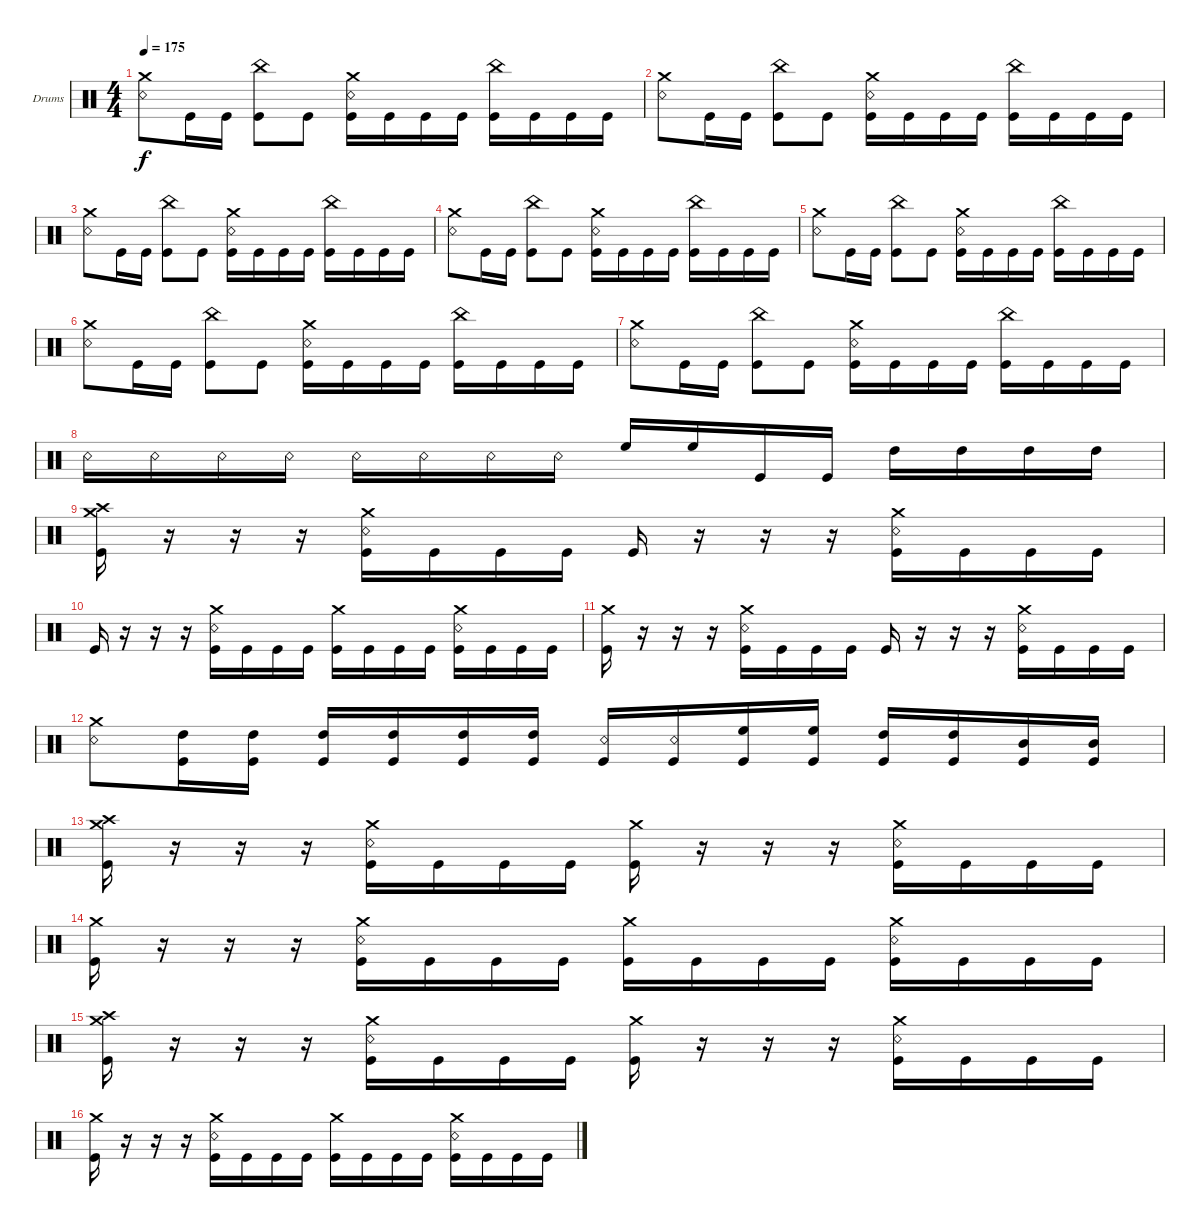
\bracketExtendMode groupsimilarinstruments
\firstSystemTrackNameOrientation horizontal
\otherSystemsTrackNameOrientation horizontal
\track ("Drumkit" "Drums") {instrument percussion}
\staff {score}
\articulation defaults
\ts (4 4)
\tempo 175
\clef neutral
\ks c
("Crash medium (hit)" "Snare (rim shot)").8{dy f} "Kick (hit)".16 "Kick (hit)".16 ("China (hit)" "Kick (hit)").8 "Kick (hit)".8 ("Crash medium (hit)" "Snare (rim shot)" "Kick (hit)").16 "Kick (hit)".16 "Kick (hit)".16 "Kick (hit)".16 ("China (hit)" "Kick (hit)").16 "Kick (hit)".16 "Kick (hit)".16 "Kick (hit)".16 |
("Crash medium (hit)" "Snare (rim shot)").8 "Kick (hit)".16 "Kick (hit)".16 ("China (hit)" "Kick (hit)").8 "Kick (hit)".8 ("Crash medium (hit)" "Snare (rim shot)" "Kick (hit)").16 "Kick (hit)".16 "Kick (hit)".16 "Kick (hit)".16 ("China (hit)" "Kick (hit)").16 "Kick (hit)".16 "Kick (hit)".16 "Kick (hit)".16 |
("Crash medium (hit)" "Snare (rim shot)").8 "Kick (hit)".16 "Kick (hit)".16 ("China (hit)" "Kick (hit)").8 "Kick (hit)".8 ("Crash medium (hit)" "Snare (rim shot)" "Kick (hit)").16 "Kick (hit)".16 "Kick (hit)".16 "Kick (hit)".16 ("China (hit)" "Kick (hit)").16 "Kick (hit)".16 "Kick (hit)".16 "Kick (hit)".16 |
("Crash medium (hit)" "Snare (rim shot)").8 "Kick (hit)".16 "Kick (hit)".16 ("China (hit)" "Kick (hit)").8 "Kick (hit)".8 ("Crash medium (hit)" "Snare (rim shot)" "Kick (hit)").16 "Kick (hit)".16 "Kick (hit)".16 "Kick (hit)".16 ("China (hit)" "Kick (hit)").16 "Kick (hit)".16 "Kick (hit)".16 "Kick (hit)".16 |
("Crash medium (hit)" "Snare (rim shot)").8 "Kick (hit)".16 "Kick (hit)".16 ("China (hit)" "Kick (hit)").8 "Kick (hit)".8 ("Crash medium (hit)" "Snare (rim shot)" "Kick (hit)").16 "Kick (hit)".16 "Kick (hit)".16 "Kick (hit)".16 ("China (hit)" "Kick (hit)").16 "Kick (hit)".16 "Kick (hit)".16 "Kick (hit)".16 |
("Crash medium (hit)" "Snare (rim shot)").8 "Kick (hit)".16 "Kick (hit)".16 ("China (hit)" "Kick (hit)").8 "Kick (hit)".8 ("Crash medium (hit)" "Snare (rim shot)" "Kick (hit)").16 "Kick (hit)".16 "Kick (hit)".16 "Kick (hit)".16 ("China (hit)" "Kick (hit)").16 "Kick (hit)".16 "Kick (hit)".16 "Kick (hit)".16 |
("Crash medium (hit)" "Snare (rim shot)").8 "Kick (hit)".16 "Kick (hit)".16 ("China (hit)" "Kick (hit)").8 "Kick (hit)".8 ("Crash medium (hit)" "Snare (rim shot)" "Kick (hit)").16 "Kick (hit)".16 "Kick (hit)".16 "Kick (hit)".16 ("China (hit)" "Kick (hit)").16 "Kick (hit)".16 "Kick (hit)".16 "Kick (hit)".16 |
"Snare (rim shot)".16 "Snare (rim shot)".16 "Snare (rim shot)".16 "Snare (rim shot)".16 "Snare (rim shot)".16 "Snare (rim shot)".16 "Snare (rim shot)".16 "Snare (rim shot)".16 "High Floor Tom (hit)".16 "High Floor Tom (hit)".16 "Kick (hit)".16 "Kick (hit)".16 "High Tom (hit)".16 "High Tom (hit)".16 "High Tom (hit)".16 "High Tom (hit)".16 |
("Crash high (hit)" "Crash medium (hit)" "Kick (hit)").16 r.16 r.16 r.16 ("Crash medium (hit)" "Snare (rim shot)" "Kick (hit)").16 "Kick (hit)".16 "Kick (hit)".16 "Kick (hit)".16 "Kick (hit)".16 r.16 r.16 r.16 ("Crash medium (hit)" "Snare (rim shot)" "Kick (hit)").16 "Kick (hit)".16 "Kick (hit)".16 "Kick (hit)".16 |
"Kick (hit)".16 r.16 r.16 r.16 ("Crash medium (hit)" "Snare (rim shot)" "Kick (hit)").16 "Kick (hit)".16 "Kick (hit)".16 "Kick (hit)".16 ("Crash medium (hit)" "Kick (hit)").16 "Kick (hit)".16 "Kick (hit)".16 "Kick (hit)".16 ("Crash medium (hit)" "Snare (rim shot)" "Kick (hit)").16 "Kick (hit)".16 "Kick (hit)".16 "Kick (hit)".16 |
("Crash medium (hit)" "Kick (hit)").16 r.16 r.16 r.16 ("Crash medium (hit)" "Snare (rim shot)" "Kick (hit)").16 "Kick (hit)".16 "Kick (hit)".16 "Kick (hit)".16 "Kick (hit)".16 r.16 r.16 r.16 ("Crash medium (hit)" "Snare (rim shot)" "Kick (hit)").16 "Kick (hit)".16 "Kick (hit)".16 "Kick (hit)".16 |
("Crash medium (hit)" "Snare (rim shot)").8 ("High Tom (hit)" "Kick (hit)").16 ("High Tom (hit)" "Kick (hit)").16 ("High Tom (hit)" "Kick (hit)").16 ("High Tom (hit)" "Kick (hit)").16 ("High Tom (hit)" "Kick (hit)").16 ("High Tom (hit)" "Kick (hit)").16 ("Snare (rim shot)" "Kick (hit)").16 ("Snare (rim shot)" "Kick (hit)").16 ("High Floor Tom (hit)" "Kick (hit)").16 ("High Floor Tom (hit)" "Kick (hit)").16 ("High Tom (hit)" "Kick (hit)").16 ("High Tom (hit)" "Kick (hit)").16 ("Mid Tom (hit)" "Kick (hit)").16 ("Mid Tom (hit)" "Kick (hit)").16 |
("Crash high (hit)" "Crash medium (hit)" "Kick (hit)").16 r.16 r.16 r.16 ("Crash medium (hit)" "Snare (rim shot)" "Kick (hit)").16 "Kick (hit)".16 "Kick (hit)".16 "Kick (hit)".16 ("Crash medium (hit)" "Kick (hit)").16 r.16 r.16 r.16 ("Crash medium (hit)" "Snare (rim shot)" "Kick (hit)").16 "Kick (hit)".16 "Kick (hit)".16 "Kick (hit)".16 |
("Crash medium (hit)" "Kick (hit)").16 r.16 r.16 r.16 ("Crash medium (hit)" "Snare (rim shot)" "Kick (hit)").16 "Kick (hit)".16 "Kick (hit)".16 "Kick (hit)".16 ("Crash medium (hit)" "Kick (hit)").16 "Kick (hit)".16 "Kick (hit)".16 "Kick (hit)".16 ("Crash medium (hit)" "Snare (rim shot)" "Kick (hit)").16 "Kick (hit)".16 "Kick (hit)".16 "Kick (hit)".16 |
("Crash high (hit)" "Crash medium (hit)" "Kick (hit)").16 r.16 r.16 r.16 ("Crash medium (hit)" "Snare (rim shot)" "Kick (hit)").16 "Kick (hit)".16 "Kick (hit)".16 "Kick (hit)".16 ("Crash medium (hit)" "Kick (hit)").16 r.16 r.16 r.16 ("Crash medium (hit)" "Snare (rim shot)" "Kick (hit)").16 "Kick (hit)".16 "Kick (hit)".16 "Kick (hit)".16 |
("Crash medium (hit)" "Kick (hit)").16 r.16 r.16 r.16 ("Crash medium (hit)" "Snare (rim shot)" "Kick (hit)").16 "Kick (hit)".16 "Kick (hit)".16 "Kick (hit)".16 ("Crash medium (hit)" "Kick (hit)").16 "Kick (hit)".16 "Kick (hit)".16 "Kick (hit)".16 ("Crash medium (hit)" "Snare (rim shot)" "Kick (hit)").16 "Kick (hit)".16 "Kick (hit)".16 "Kick (hit)".16
